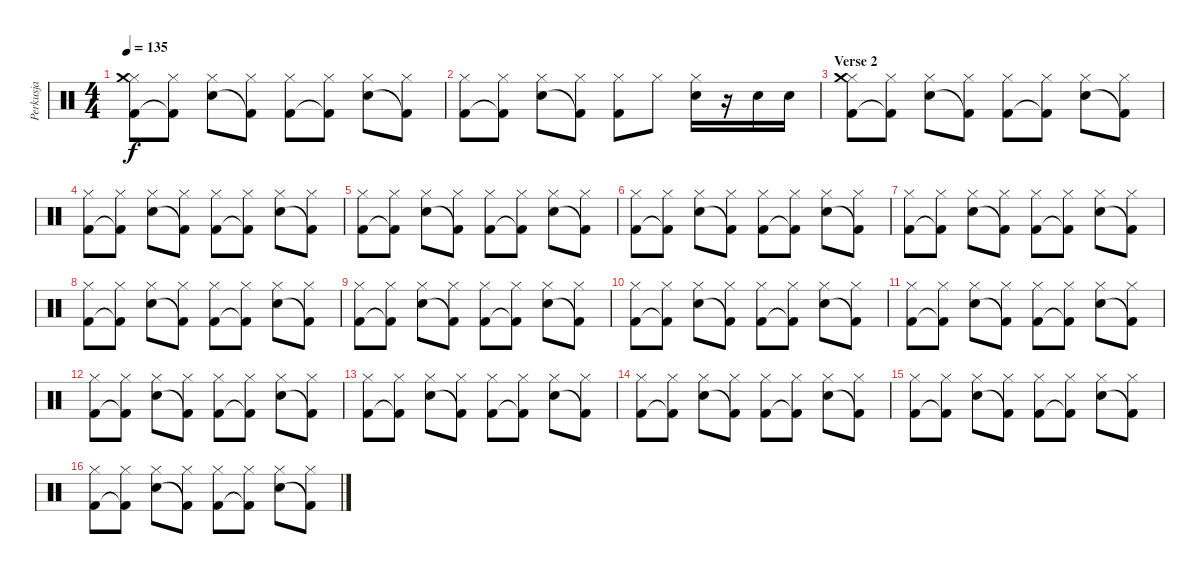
\track ("Perkusja" "Perkusja") {instrument percussion}
\staff {score}
\articulation defaults
\ts (4 4)
\tempo 135
\clef neutral
\ks c
("Kick (hit) 2" "Hi-Hat (closed)" "Crash medium (hit)").8{dy f} ("Kick (hit) 2"{t} "Hi-Hat (closed)").8 ("Snare (hit) 2" "Hi-Hat (closed)").8 ("Kick (hit) 2"{t} "Hi-Hat (closed)").8 ("Kick (hit) 2" "Hi-Hat (closed)").8 ("Kick (hit) 2"{t} "Hi-Hat (closed)").8 ("Snare (hit) 2" "Hi-Hat (closed)").8 ("Kick (hit) 2"{t} "Hi-Hat (closed)").8 |
("Kick (hit) 2" "Hi-Hat (closed)").8 ("Kick (hit) 2"{t} "Hi-Hat (closed)").8 ("Snare (hit) 2" "Hi-Hat (closed)").8 ("Kick (hit) 2"{t} "Hi-Hat (closed)").8 ("Kick (hit) 2" "Hi-Hat (closed)").8 "Hi-Hat (closed)".8 ("Snare (hit) 2" "Hi-Hat (closed)").16 r.16 "Snare (hit) 2".16 "Snare (hit) 2".16 |
\section ("" "Verse 2")
("Kick (hit) 2" "Hi-Hat (closed)" "Crash medium (hit)").8 ("Kick (hit) 2"{t} "Hi-Hat (closed)").8 ("Snare (hit) 2" "Hi-Hat (closed)").8 ("Kick (hit) 2"{t} "Hi-Hat (closed)").8 ("Kick (hit) 2" "Hi-Hat (closed)").8 ("Kick (hit) 2"{t} "Hi-Hat (closed)").8 ("Snare (hit) 2" "Hi-Hat (closed)").8 ("Kick (hit) 2"{t} "Hi-Hat (closed)").8 |
("Kick (hit) 2" "Hi-Hat (closed)").8 ("Kick (hit) 2"{t} "Hi-Hat (closed)").8 ("Snare (hit) 2" "Hi-Hat (closed)").8 ("Kick (hit) 2"{t} "Hi-Hat (closed)").8 ("Kick (hit) 2" "Hi-Hat (closed)").8 ("Kick (hit) 2"{t} "Hi-Hat (closed)").8 ("Snare (hit) 2" "Hi-Hat (closed)").8 ("Kick (hit) 2"{t} "Hi-Hat (closed)").8 |
("Kick (hit) 2" "Hi-Hat (closed)").8 ("Kick (hit) 2"{t} "Hi-Hat (closed)").8 ("Snare (hit) 2" "Hi-Hat (closed)").8 ("Kick (hit) 2"{t} "Hi-Hat (closed)").8 ("Kick (hit) 2" "Hi-Hat (closed)").8 ("Kick (hit) 2"{t} "Hi-Hat (closed)").8 ("Snare (hit) 2" "Hi-Hat (closed)").8 ("Kick (hit) 2"{t} "Hi-Hat (closed)").8 |
("Kick (hit) 2" "Hi-Hat (closed)").8 ("Kick (hit) 2"{t} "Hi-Hat (closed)").8 ("Snare (hit) 2" "Hi-Hat (closed)").8 ("Kick (hit) 2"{t} "Hi-Hat (closed)").8 ("Kick (hit) 2" "Hi-Hat (closed)").8 ("Kick (hit) 2"{t} "Hi-Hat (closed)").8 ("Snare (hit) 2" "Hi-Hat (closed)").8 ("Kick (hit) 2"{t} "Hi-Hat (closed)").8 |
("Kick (hit) 2" "Hi-Hat (closed)").8 ("Kick (hit) 2"{t} "Hi-Hat (closed)").8 ("Snare (hit) 2" "Hi-Hat (closed)").8 ("Kick (hit) 2"{t} "Hi-Hat (closed)").8 ("Kick (hit) 2" "Hi-Hat (closed)").8 ("Kick (hit) 2"{t} "Hi-Hat (closed)").8 ("Snare (hit) 2" "Hi-Hat (closed)").8 ("Kick (hit) 2"{t} "Hi-Hat (closed)").8 |
("Kick (hit) 2" "Hi-Hat (closed)").8 ("Kick (hit) 2"{t} "Hi-Hat (closed)").8 ("Snare (hit) 2" "Hi-Hat (closed)").8 ("Kick (hit) 2"{t} "Hi-Hat (closed)").8 ("Kick (hit) 2" "Hi-Hat (closed)").8 ("Kick (hit) 2"{t} "Hi-Hat (closed)").8 ("Snare (hit) 2" "Hi-Hat (closed)").8 ("Kick (hit) 2"{t} "Hi-Hat (closed)").8 |
("Kick (hit) 2" "Hi-Hat (closed)").8 ("Kick (hit) 2"{t} "Hi-Hat (closed)").8 ("Snare (hit) 2" "Hi-Hat (closed)").8 ("Kick (hit) 2"{t} "Hi-Hat (closed)").8 ("Kick (hit) 2" "Hi-Hat (closed)").8 ("Kick (hit) 2"{t} "Hi-Hat (closed)").8 ("Snare (hit) 2" "Hi-Hat (closed)").8 ("Kick (hit) 2"{t} "Hi-Hat (closed)").8 |
("Kick (hit) 2" "Hi-Hat (closed)").8 ("Kick (hit) 2"{t} "Hi-Hat (closed)").8 ("Snare (hit) 2" "Hi-Hat (closed)").8 ("Kick (hit) 2"{t} "Hi-Hat (closed)").8 ("Kick (hit) 2" "Hi-Hat (closed)").8 ("Kick (hit) 2"{t} "Hi-Hat (closed)").8 ("Snare (hit) 2" "Hi-Hat (closed)").8 ("Kick (hit) 2"{t} "Hi-Hat (closed)").8 |
("Kick (hit) 2" "Hi-Hat (closed)").8 ("Kick (hit) 2"{t} "Hi-Hat (closed)").8 ("Snare (hit) 2" "Hi-Hat (closed)").8 ("Kick (hit) 2"{t} "Hi-Hat (closed)").8 ("Kick (hit) 2" "Hi-Hat (closed)").8 ("Kick (hit) 2"{t} "Hi-Hat (closed)").8 ("Snare (hit) 2" "Hi-Hat (closed)").8 ("Kick (hit) 2"{t} "Hi-Hat (closed)").8 |
("Kick (hit) 2" "Hi-Hat (closed)").8 ("Kick (hit) 2"{t} "Hi-Hat (closed)").8 ("Snare (hit) 2" "Hi-Hat (closed)").8 ("Kick (hit) 2"{t} "Hi-Hat (closed)").8 ("Kick (hit) 2" "Hi-Hat (closed)").8 ("Kick (hit) 2"{t} "Hi-Hat (closed)").8 ("Snare (hit) 2" "Hi-Hat (closed)").8 ("Kick (hit) 2"{t} "Hi-Hat (closed)").8 |
("Kick (hit) 2" "Hi-Hat (closed)").8 ("Kick (hit) 2"{t} "Hi-Hat (closed)").8 ("Snare (hit) 2" "Hi-Hat (closed)").8 ("Kick (hit) 2"{t} "Hi-Hat (closed)").8 ("Kick (hit) 2" "Hi-Hat (closed)").8 ("Kick (hit) 2"{t} "Hi-Hat (closed)").8 ("Snare (hit) 2" "Hi-Hat (closed)").8 ("Kick (hit) 2"{t} "Hi-Hat (closed)").8 |
("Kick (hit) 2" "Hi-Hat (closed)").8 ("Kick (hit) 2"{t} "Hi-Hat (closed)").8 ("Snare (hit) 2" "Hi-Hat (closed)").8 ("Kick (hit) 2"{t} "Hi-Hat (closed)").8 ("Kick (hit) 2" "Hi-Hat (closed)").8 ("Kick (hit) 2"{t} "Hi-Hat (closed)").8 ("Snare (hit) 2" "Hi-Hat (closed)").8 ("Kick (hit) 2"{t} "Hi-Hat (closed)").8 |
("Kick (hit) 2" "Hi-Hat (closed)").8 ("Kick (hit) 2"{t} "Hi-Hat (closed)").8 ("Snare (hit) 2" "Hi-Hat (closed)").8 ("Kick (hit) 2"{t} "Hi-Hat (closed)").8 ("Kick (hit) 2" "Hi-Hat (closed)").8 ("Kick (hit) 2"{t} "Hi-Hat (closed)").8 ("Snare (hit) 2" "Hi-Hat (closed)").8 ("Kick (hit) 2"{t} "Hi-Hat (closed)").8 |
("Kick (hit) 2" "Hi-Hat (closed)").8 ("Kick (hit) 2"{t} "Hi-Hat (closed)").8 ("Snare (hit) 2" "Hi-Hat (closed)").8 ("Kick (hit) 2"{t} "Hi-Hat (closed)").8 ("Kick (hit) 2" "Hi-Hat (closed)").8 ("Kick (hit) 2"{t} "Hi-Hat (closed)").8 ("Snare (hit) 2" "Hi-Hat (closed)").8 ("Kick (hit) 2"{t} "Hi-Hat (closed)").8
